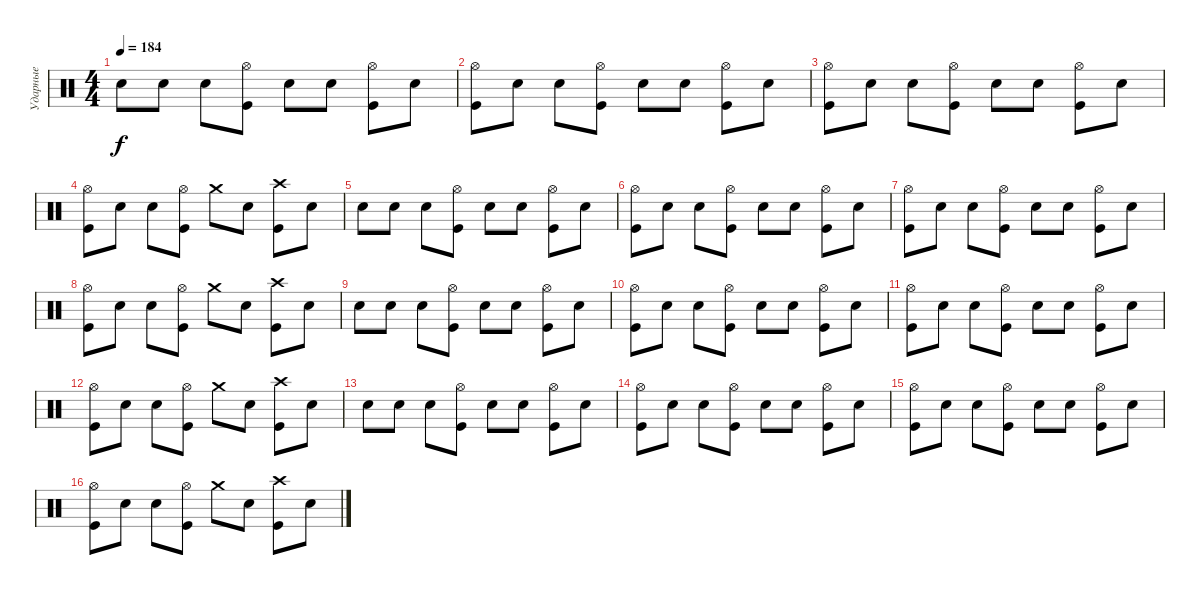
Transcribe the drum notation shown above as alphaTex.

\track ("Ударные" "Ударные") {instrument percussion}
\staff {score}
\articulation defaults
\ts (4 4)
\tempo 184
\clef neutral
\ks c "Electric Snare (hit)".8{dy f} "Electric Snare (hit)".8 "Electric Snare (hit)".8
("Hi-Hat (open)" "Kick (hit)").8 "Electric Snare (hit)".8 "Electric Snare (hit)".8 ("Hi-Hat (open)" "Kick (hit)").8 "Electric Snare (hit)".8 |
("Hi-Hat (open)" "Kick (hit)").8 "Electric Snare (hit)".8 "Electric Snare (hit)".8 ("Hi-Hat (open)" "Kick (hit)").8 "Electric Snare (hit)".8 "Electric Snare (hit)".8 ("Hi-Hat (open)" "Kick (hit)").8 "Electric Snare (hit)".8 |
("Hi-Hat (open)" "Kick (hit)").8 "Electric Snare (hit)".8 "Electric Snare (hit)".8 ("Hi-Hat (open)" "Kick (hit)").8 "Electric Snare (hit)".8 "Electric Snare (hit)".8 ("Hi-Hat (open)" "Kick (hit)").8 "Electric Snare (hit)".8 |
("Hi-Hat (open)" "Kick (hit)").8 "Electric Snare (hit)".8 "Electric Snare (hit)".8 ("Hi-Hat (open)" "Kick (hit)").8 "Crash medium (hit)".8 "Electric Snare (hit)".8 ("Crash high (hit)" "Kick (hit)").8 "Electric Snare (hit)".8 |
"Electric Snare (hit)".8 "Electric Snare (hit)".8 "Electric Snare (hit)".8 ("Hi-Hat (open)" "Kick (hit)").8 "Electric Snare (hit)".8 "Electric Snare (hit)".8 ("Hi-Hat (open)" "Kick (hit)").8 "Electric Snare (hit)".8 |
("Hi-Hat (open)" "Kick (hit)").8 "Electric Snare (hit)".8 "Electric Snare (hit)".8 ("Hi-Hat (open)" "Kick (hit)").8 "Electric Snare (hit)".8 "Electric Snare (hit)".8 ("Hi-Hat (open)" "Kick (hit)").8 "Electric Snare (hit)".8 |
("Hi-Hat (open)" "Kick (hit)").8 "Electric Snare (hit)".8 "Electric Snare (hit)".8 ("Hi-Hat (open)" "Kick (hit)").8 "Electric Snare (hit)".8 "Electric Snare (hit)".8 ("Hi-Hat (open)" "Kick (hit)").8 "Electric Snare (hit)".8 |
("Hi-Hat (open)" "Kick (hit)").8 "Electric Snare (hit)".8 "Electric Snare (hit)".8 ("Hi-Hat (open)" "Kick (hit)").8 "Crash medium (hit)".8 "Electric Snare (hit)".8 ("Crash high (hit)" "Kick (hit)").8 "Electric Snare (hit)".8 |
"Electric Snare (hit)".8 "Electric Snare (hit)".8 "Electric Snare (hit)".8 ("Hi-Hat (open)" "Kick (hit)").8 "Electric Snare (hit)".8 "Electric Snare (hit)".8 ("Hi-Hat (open)" "Kick (hit)").8 "Electric Snare (hit)".8 |
("Hi-Hat (open)" "Kick (hit)").8 "Electric Snare (hit)".8 "Electric Snare (hit)".8 ("Hi-Hat (open)" "Kick (hit)").8 "Electric Snare (hit)".8 "Electric Snare (hit)".8 ("Hi-Hat (open)" "Kick (hit)").8 "Electric Snare (hit)".8 |
("Hi-Hat (open)" "Kick (hit)").8 "Electric Snare (hit)".8 "Electric Snare (hit)".8 ("Hi-Hat (open)" "Kick (hit)").8 "Electric Snare (hit)".8 "Electric Snare (hit)".8 ("Hi-Hat (open)" "Kick (hit)").8 "Electric Snare (hit)".8 |
("Hi-Hat (open)" "Kick (hit)").8 "Electric Snare (hit)".8 "Electric Snare (hit)".8 ("Hi-Hat (open)" "Kick (hit)").8 "Crash medium (hit)".8 "Electric Snare (hit)".8 ("Crash high (hit)" "Kick (hit)").8 "Electric Snare (hit)".8 |
"Electric Snare (hit)".8 "Electric Snare (hit)".8 "Electric Snare (hit)".8 ("Hi-Hat (open)" "Kick (hit)").8 "Electric Snare (hit)".8 "Electric Snare (hit)".8 ("Hi-Hat (open)" "Kick (hit)").8 "Electric Snare (hit)".8 |
("Hi-Hat (open)" "Kick (hit)").8 "Electric Snare (hit)".8 "Electric Snare (hit)".8 ("Hi-Hat (open)" "Kick (hit)").8 "Electric Snare (hit)".8 "Electric Snare (hit)".8 ("Hi-Hat (open)" "Kick (hit)").8 "Electric Snare (hit)".8 |
("Hi-Hat (open)" "Kick (hit)").8 "Electric Snare (hit)".8 "Electric Snare (hit)".8 ("Hi-Hat (open)" "Kick (hit)").8 "Electric Snare (hit)".8 "Electric Snare (hit)".8 ("Hi-Hat (open)" "Kick (hit)").8 "Electric Snare (hit)".8 |
("Hi-Hat (open)" "Kick (hit)").8 "Electric Snare (hit)".8 "Electric Snare (hit)".8 ("Hi-Hat (open)" "Kick (hit)").8 "Crash medium (hit)".8 "Electric Snare (hit)".8 ("Crash high (hit)" "Kick (hit)").8 "Electric Snare (hit)".8
